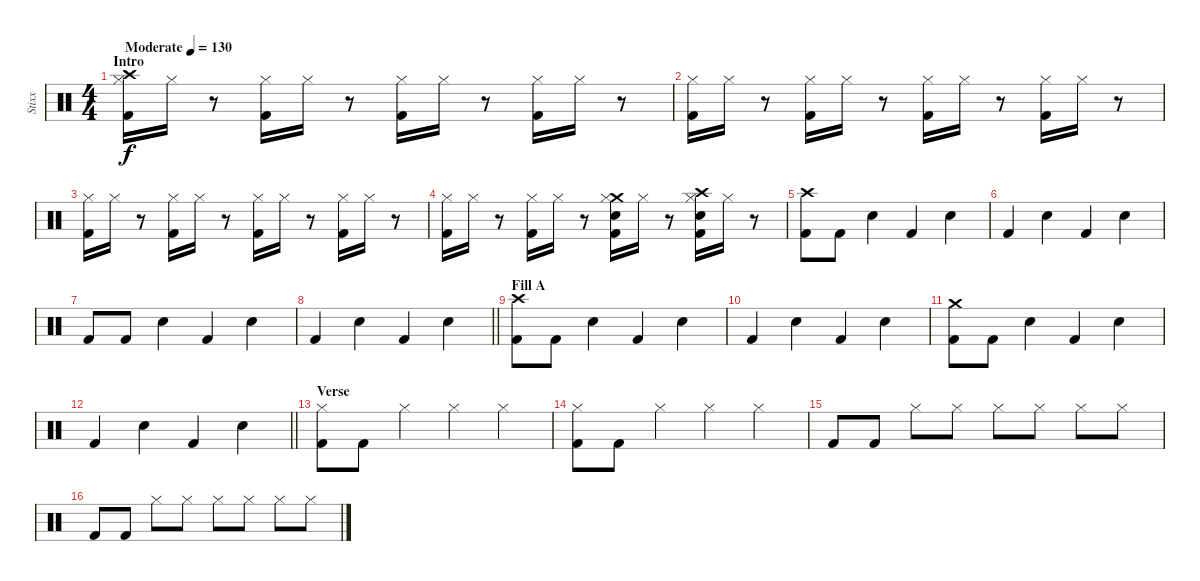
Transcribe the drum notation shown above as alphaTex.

\track ("Stixx" "Stixx") {instrument percussion}
\staff {score}
\articulation defaults
\ts (4 4)
\section ("" "Intro")
\tempo (130 "Moderate")
\clef neutral
\ks c
("Hi-Hat (closed)" "Crash high (hit)" "Kick (hit) 2").16{dy f} "Hi-Hat (closed)".16 r.8 ("Hi-Hat (closed)" "Kick (hit) 2").16 "Hi-Hat (closed)".16 r.8 ("Hi-Hat (closed)" "Kick (hit) 2").16 "Hi-Hat (closed)".16 r.8 ("Hi-Hat (closed)" "Kick (hit) 2").16 "Hi-Hat (closed)".16 r.8 |
("Hi-Hat (closed)" "Kick (hit) 2").16 "Hi-Hat (closed)".16 r.8 ("Hi-Hat (closed)" "Kick (hit) 2").16 "Hi-Hat (closed)".16 r.8 ("Hi-Hat (closed)" "Kick (hit) 2").16 "Hi-Hat (closed)".16 r.8 ("Hi-Hat (closed)" "Kick (hit) 2").16 "Hi-Hat (closed)".16 r.8 |
("Hi-Hat (closed)" "Kick (hit) 2").16 "Hi-Hat (closed)".16 r.8 ("Hi-Hat (closed)" "Kick (hit) 2").16 "Hi-Hat (closed)".16 r.8 ("Hi-Hat (closed)" "Kick (hit) 2").16 "Hi-Hat (closed)".16 r.8 ("Hi-Hat (closed)" "Kick (hit) 2").16 "Hi-Hat (closed)".16 r.8 |
("Hi-Hat (closed)" "Kick (hit) 2").16 "Hi-Hat (closed)".16 r.8 ("Hi-Hat (closed)" "Kick (hit) 2").16 "Hi-Hat (closed)".16 r.8 ("Crash medium (hit)" "Snare (hit) 2" "Hi-Hat (closed)" "Kick (hit) 2").16 "Hi-Hat (closed)".16 r.8 ("Crash high (hit)" "Snare (hit) 2" "Hi-Hat (closed)" "Kick (hit) 2").16 "Hi-Hat (closed)".16 r.8 |
("Crash high (hit)" "Kick (hit) 2").8 "Kick (hit) 2".8 "Snare (hit) 2".4 "Kick (hit) 2".4 "Snare (hit) 2".4 |
"Kick (hit) 2".4 "Snare (hit) 2".4 "Kick (hit) 2".4 "Snare (hit) 2".4 |
"Kick (hit) 2".8 "Kick (hit) 2".8 "Snare (hit) 2".4 "Kick (hit) 2".4 "Snare (hit) 2".4 |
\barLineRight lightlight "Kick (hit) 2".4 "Snare (hit) 2".4 "Kick (hit) 2".4 "Snare (hit) 2".4
|
\section ("" "Fill A")
("Crash high (hit)" "Kick (hit) 2").8 "Kick (hit) 2".8 "Snare (hit) 2".4 "Kick (hit) 2".4 "Snare (hit) 2".4 |
"Kick (hit) 2".4 "Snare (hit) 2".4 "Kick (hit) 2".4 "Snare (hit) 2".4 |
("Crash medium (hit)" "Kick (hit) 2").8 "Kick (hit) 2".8 "Snare (hit) 2".4 "Kick (hit) 2".4 "Snare (hit) 2".4 |
\barLineRight lightlight "Kick (hit) 2".4 "Snare (hit) 2".4 "Kick (hit) 2".4 "Snare (hit) 2".4
|
\section ("" "Verse")
("Hi-Hat (closed)" "Kick (hit) 2").8 "Kick (hit) 2".8 "Hi-Hat (closed)".4 "Hi-Hat (closed)".4 "Hi-Hat (closed)".4 |
("Hi-Hat (closed)" "Kick (hit) 2").8 "Kick (hit) 2".8 "Hi-Hat (closed)".4 "Hi-Hat (closed)".4 "Hi-Hat (closed)".4 |
"Kick (hit) 2".8 "Kick (hit) 2".8 "Hi-Hat (closed)".8 "Hi-Hat (closed)".8 "Hi-Hat (closed)".8 "Hi-Hat (closed)".8 "Hi-Hat (closed)".8 "Hi-Hat (closed)".8 |
"Kick (hit) 2".8 "Kick (hit) 2".8 "Hi-Hat (closed)".8 "Hi-Hat (closed)".8 "Hi-Hat (closed)".8 "Hi-Hat (closed)".8 "Hi-Hat (closed)".8 "Hi-Hat (closed)".8
